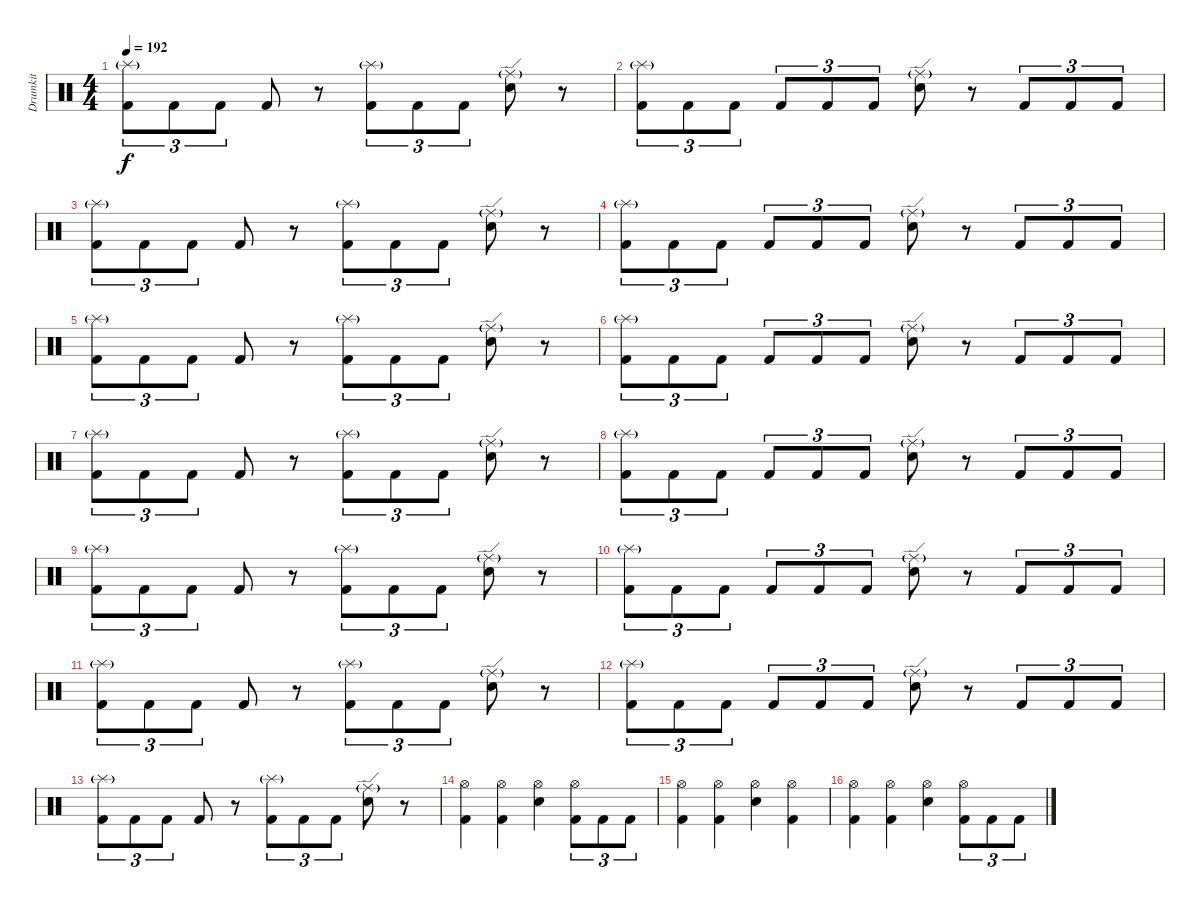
\track ("Drumkit" "Drumkit") {instrument percussion}
\staff {score}
\articulation defaults
\ts (4 4)
\tempo 192
\clef neutral
\ks c
("Splash (hit)"{g} "Kick (hit) 2").8{tu (3 2) dy f} "Kick (hit) 2".8{tu (3 2)} "Kick (hit) 2".8{tu (3 2)} "Kick (hit) 2".8 r.8 ("Kick (hit) 2" "Splash (hit)"{g}).8{tu (3 2)} "Kick (hit) 2".8{tu (3 2)} "Kick (hit) 2".8{tu (3 2)} ("Snare (hit) 2" "Ride (edge)"{g}).8 r.8 |
("Kick (hit) 2" "Splash (hit)"{g}).8{tu (3 2)} "Kick (hit) 2".8{tu (3 2)} "Kick (hit) 2".8{tu (3 2)} "Kick (hit) 2".8{tu (3 2)} "Kick (hit) 2".8{tu (3 2)} "Kick (hit) 2".8{tu (3 2)} ("Snare (hit) 2" "Ride (edge)"{g}).8 r.8 "Kick (hit) 2".8{tu (3 2)} "Kick (hit) 2".8{tu (3 2)} "Kick (hit) 2".8{tu (3 2)} |
("Splash (hit)"{g} "Kick (hit) 2").8{tu (3 2)} "Kick (hit) 2".8{tu (3 2)} "Kick (hit) 2".8{tu (3 2)} "Kick (hit) 2".8 r.8 ("Kick (hit) 2" "Splash (hit)"{g}).8{tu (3 2)} "Kick (hit) 2".8{tu (3 2)} "Kick (hit) 2".8{tu (3 2)} ("Snare (hit) 2" "Ride (edge)"{g}).8 r.8 |
("Kick (hit) 2" "Splash (hit)"{g}).8{tu (3 2)} "Kick (hit) 2".8{tu (3 2)} "Kick (hit) 2".8{tu (3 2)} "Kick (hit) 2".8{tu (3 2)} "Kick (hit) 2".8{tu (3 2)} "Kick (hit) 2".8{tu (3 2)} ("Snare (hit) 2" "Ride (edge)"{g}).8 r.8 "Kick (hit) 2".8{tu (3 2)} "Kick (hit) 2".8{tu (3 2)} "Kick (hit) 2".8{tu (3 2)} |
("Splash (hit)"{g} "Kick (hit) 2").8{tu (3 2)} "Kick (hit) 2".8{tu (3 2)} "Kick (hit) 2".8{tu (3 2)} "Kick (hit) 2".8 r.8 ("Kick (hit) 2" "Splash (hit)"{g}).8{tu (3 2)} "Kick (hit) 2".8{tu (3 2)} "Kick (hit) 2".8{tu (3 2)} ("Snare (hit) 2" "Ride (edge)"{g}).8 r.8 |
("Kick (hit) 2" "Splash (hit)"{g}).8{tu (3 2)} "Kick (hit) 2".8{tu (3 2)} "Kick (hit) 2".8{tu (3 2)} "Kick (hit) 2".8{tu (3 2)} "Kick (hit) 2".8{tu (3 2)} "Kick (hit) 2".8{tu (3 2)} ("Snare (hit) 2" "Ride (edge)"{g}).8 r.8 "Kick (hit) 2".8{tu (3 2)} "Kick (hit) 2".8{tu (3 2)} "Kick (hit) 2".8{tu (3 2)} |
("Splash (hit)"{g} "Kick (hit) 2").8{tu (3 2)} "Kick (hit) 2".8{tu (3 2)} "Kick (hit) 2".8{tu (3 2)} "Kick (hit) 2".8 r.8 ("Kick (hit) 2" "Splash (hit)"{g}).8{tu (3 2)} "Kick (hit) 2".8{tu (3 2)} "Kick (hit) 2".8{tu (3 2)} ("Snare (hit) 2" "Ride (edge)"{g}).8 r.8 |
("Kick (hit) 2" "Splash (hit)"{g}).8{tu (3 2)} "Kick (hit) 2".8{tu (3 2)} "Kick (hit) 2".8{tu (3 2)} "Kick (hit) 2".8{tu (3 2)} "Kick (hit) 2".8{tu (3 2)} "Kick (hit) 2".8{tu (3 2)} ("Snare (hit) 2" "Ride (edge)"{g}).8 r.8 "Kick (hit) 2".8{tu (3 2)} "Kick (hit) 2".8{tu (3 2)} "Kick (hit) 2".8{tu (3 2)} |
("Splash (hit)"{g} "Kick (hit) 2").8{tu (3 2)} "Kick (hit) 2".8{tu (3 2)} "Kick (hit) 2".8{tu (3 2)} "Kick (hit) 2".8 r.8 ("Kick (hit) 2" "Splash (hit)"{g}).8{tu (3 2)} "Kick (hit) 2".8{tu (3 2)} "Kick (hit) 2".8{tu (3 2)} ("Snare (hit) 2" "Ride (edge)"{g}).8 r.8 |
("Kick (hit) 2" "Splash (hit)"{g}).8{tu (3 2)} "Kick (hit) 2".8{tu (3 2)} "Kick (hit) 2".8{tu (3 2)} "Kick (hit) 2".8{tu (3 2)} "Kick (hit) 2".8{tu (3 2)} "Kick (hit) 2".8{tu (3 2)} ("Snare (hit) 2" "Ride (edge)"{g}).8 r.8 "Kick (hit) 2".8{tu (3 2)} "Kick (hit) 2".8{tu (3 2)} "Kick (hit) 2".8{tu (3 2)} |
("Splash (hit)"{g} "Kick (hit) 2").8{tu (3 2)} "Kick (hit) 2".8{tu (3 2)} "Kick (hit) 2".8{tu (3 2)} "Kick (hit) 2".8 r.8 ("Kick (hit) 2" "Splash (hit)"{g}).8{tu (3 2)} "Kick (hit) 2".8{tu (3 2)} "Kick (hit) 2".8{tu (3 2)} ("Snare (hit) 2" "Ride (edge)"{g}).8 r.8 |
("Kick (hit) 2" "Splash (hit)"{g}).8{tu (3 2)} "Kick (hit) 2".8{tu (3 2)} "Kick (hit) 2".8{tu (3 2)} "Kick (hit) 2".8{tu (3 2)} "Kick (hit) 2".8{tu (3 2)} "Kick (hit) 2".8{tu (3 2)} ("Snare (hit) 2" "Ride (edge)"{g}).8 r.8 "Kick (hit) 2".8{tu (3 2)} "Kick (hit) 2".8{tu (3 2)} "Kick (hit) 2".8{tu (3 2)} |
("Splash (hit)"{g} "Kick (hit) 2").8{tu (3 2)} "Kick (hit) 2".8{tu (3 2)} "Kick (hit) 2".8{tu (3 2)} "Kick (hit) 2".8 r.8 ("Kick (hit) 2" "Splash (hit)"{g}).8{tu (3 2)} "Kick (hit) 2".8{tu (3 2)} "Kick (hit) 2".8{tu (3 2)} ("Snare (hit) 2" "Ride (edge)"{g}).8 r.8 |
("Kick (hit) 2" "Hi-Hat (open)").4 ("Kick (hit) 2" "Hi-Hat (open)").4 ("Snare (hit) 2" "Hi-Hat (open)").4 ("Hi-Hat (open)" "Kick (hit) 2").8{tu (3 2)} "Kick (hit) 2".8{tu (3 2)} "Kick (hit) 2".8{tu (3 2)} |
("Kick (hit) 2" "Hi-Hat (open)").4 ("Kick (hit) 2" "Hi-Hat (open)").4 ("Snare (hit) 2" "Hi-Hat (open)").4 ("Kick (hit) 2" "Hi-Hat (open)").4 |
("Kick (hit) 2" "Hi-Hat (open)").4 ("Kick (hit) 2" "Hi-Hat (open)").4 ("Snare (hit) 2" "Hi-Hat (open)").4 ("Hi-Hat (open)" "Kick (hit) 2").8{tu (3 2)} "Kick (hit) 2".8{tu (3 2)} "Kick (hit) 2".8{tu (3 2)}
